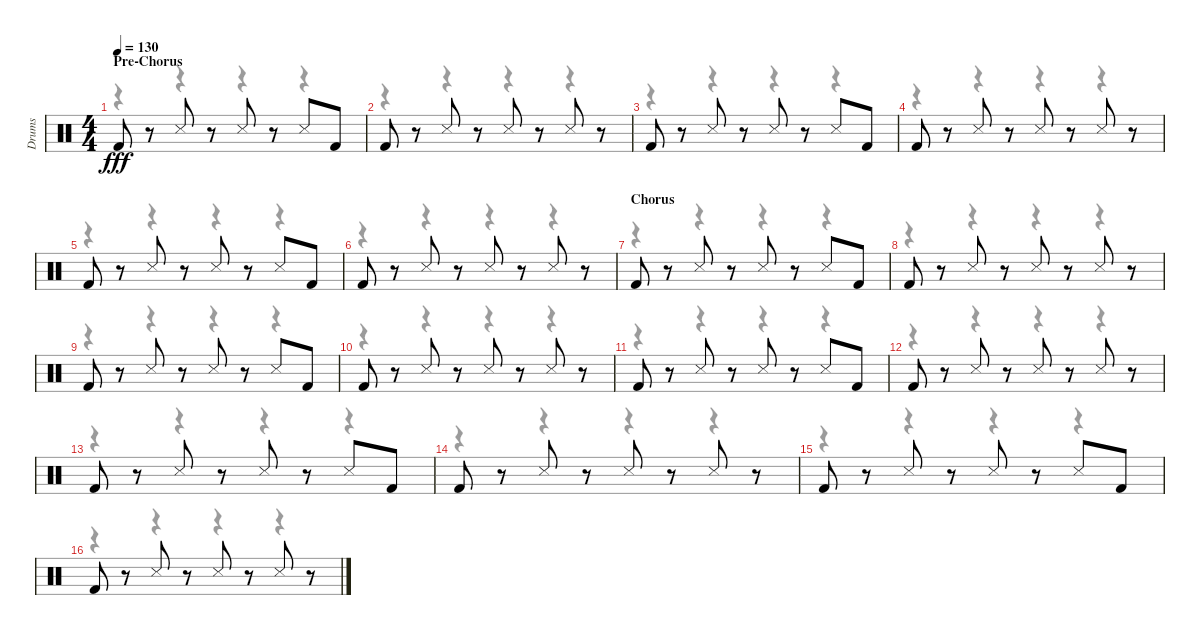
\track ("Drums" "Drums") {instrument percussion}
\staff {score}
\articulation defaults
\voice
\ts (4 4)
\section ("" "Pre-Chorus")
\tempo 130
\clef neutral
\ks c "Kick (hit) 2".8{dy fff}
r.8 "Snare (side stick) 3".8 r.8 "Snare (side stick) 3".8 r.8 "Snare (side stick) 3".8 "Kick (hit) 2".8 |
"Kick (hit) 2".8 r.8 "Snare (side stick) 3".8 r.8 "Snare (side stick) 3".8 r.8 "Snare (side stick) 3".8 r.8 |
"Kick (hit) 2".8 r.8 "Snare (side stick) 3".8 r.8 "Snare (side stick) 3".8 r.8 "Snare (side stick) 3".8 "Kick (hit) 2".8 |
"Kick (hit) 2".8 r.8 "Snare (side stick) 3".8 r.8 "Snare (side stick) 3".8 r.8 "Snare (side stick) 3".8 r.8 |
"Kick (hit) 2".8 r.8 "Snare (side stick) 3".8 r.8 "Snare (side stick) 3".8 r.8 "Snare (side stick) 3".8 "Kick (hit) 2".8 |
"Kick (hit) 2".8 r.8 "Snare (side stick) 3".8 r.8 "Snare (side stick) 3".8 r.8 "Snare (side stick) 3".8 r.8 |
\section ("" "Chorus")
"Kick (hit) 2".8 r.8 "Snare (side stick) 3".8 r.8 "Snare (side stick) 3".8 r.8 "Snare (side stick) 3".8 "Kick (hit) 2".8 |
"Kick (hit) 2".8 r.8 "Snare (side stick) 3".8 r.8 "Snare (side stick) 3".8 r.8 "Snare (side stick) 3".8 r.8 |
"Kick (hit) 2".8 r.8 "Snare (side stick) 3".8 r.8 "Snare (side stick) 3".8 r.8 "Snare (side stick) 3".8 "Kick (hit) 2".8 |
"Kick (hit) 2".8 r.8 "Snare (side stick) 3".8 r.8 "Snare (side stick) 3".8 r.8 "Snare (side stick) 3".8 r.8 |
"Kick (hit) 2".8 r.8 "Snare (side stick) 3".8 r.8 "Snare (side stick) 3".8 r.8 "Snare (side stick) 3".8 "Kick (hit) 2".8 |
"Kick (hit) 2".8 r.8 "Snare (side stick) 3".8 r.8 "Snare (side stick) 3".8 r.8 "Snare (side stick) 3".8 r.8 |
"Kick (hit) 2".8 r.8 "Snare (side stick) 3".8 r.8 "Snare (side stick) 3".8 r.8 "Snare (side stick) 3".8 "Kick (hit) 2".8 |
"Kick (hit) 2".8 r.8 "Snare (side stick) 3".8 r.8 "Snare (side stick) 3".8 r.8 "Snare (side stick) 3".8 r.8 |
"Kick (hit) 2".8 r.8 "Snare (side stick) 3".8 r.8 "Snare (side stick) 3".8 r.8 "Snare (side stick) 3".8 "Kick (hit) 2".8 |
"Kick (hit) 2".8 r.8 "Snare (side stick) 3".8 r.8 "Snare (side stick) 3".8 r.8 "Snare (side stick) 3".8 r.8
\voice
\clef neutral
\ottava regular
\simile none
\ks c
r.4{dy f} r.4 r.4 r.4 |
r.4 r.4 r.4 r.4 |
r.4 r.4 r.4 r.4 |
r.4 r.4 r.4 r.4 |
r.4 r.4 r.4 r.4 |
r.4 r.4 r.4 r.4 |
r.4 r.4 r.4 r.4 |
r.4 r.4 r.4 r.4 |
r.4 r.4 r.4 r.4 |
r.4 r.4 r.4 r.4 |
r.4 r.4 r.4 r.4 |
r.4 r.4 r.4 r.4 |
r.4 r.4 r.4 r.4 |
r.4 r.4 r.4 r.4 |
r.4 r.4 r.4 r.4 |
r.4 r.4 r.4 r.4
